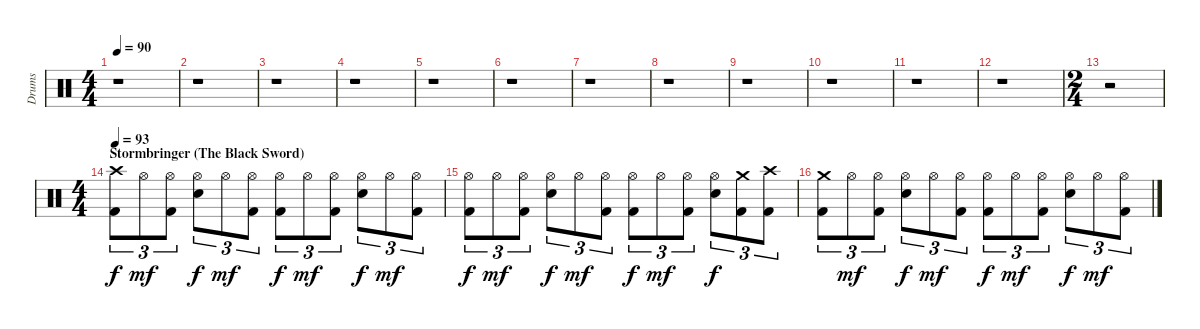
\track ("Drums" "Drums") {instrument percussion}
\staff {score}
\articulation defaults
\ts (4 4)
\tempo 90
\clef neutral
\ks c
r.1{dy f} |
r.1 |
r.1 |
r.1 |
r.1 |
r.1 |
r.1 |
r.1 |
r.1 |
r.1 |
r.1 |
r.1 |
\ts (2 4)
r.2 |
\ts (4 4)
\section ("" "Stormbringer (The Black Sword)")
\tempo 93
("Crash high (hit)" "Kick (hit) 2").8{tu (3 2)} "Hi-Hat (open)".8{tu (3 2) dy mf} ("Hi-Hat (open)" "Kick (hit) 2").8{tu (3 2)} ("Hi-Hat (open)" "Snare (hit) 2").8{tu (3 2) dy f} "Hi-Hat (open)".8{tu (3 2) dy mf} ("Hi-Hat (open)" "Kick (hit) 2").8{tu (3 2)} ("Hi-Hat (open)" "Kick (hit) 2").8{tu (3 2) dy f} "Hi-Hat (open)".8{tu (3 2) dy mf} ("Hi-Hat (open)" "Kick (hit) 2").8{tu (3 2)} ("Hi-Hat (open)" "Snare (hit) 2").8{tu (3 2) dy f} "Hi-Hat (open)".8{tu (3 2) dy mf} ("Hi-Hat (open)" "Kick (hit) 2").8{tu (3 2)} |
("Hi-Hat (open)" "Kick (hit) 2").8{tu (3 2) dy f} "Hi-Hat (open)".8{tu (3 2) dy mf} ("Hi-Hat (open)" "Kick (hit) 2").8{tu (3 2)} ("Hi-Hat (open)" "Snare (hit) 2").8{tu (3 2) dy f} "Hi-Hat (open)".8{tu (3 2) dy mf} ("Hi-Hat (open)" "Kick (hit) 2").8{tu (3 2)} ("Hi-Hat (open)" "Kick (hit) 2").8{tu (3 2) dy f} "Hi-Hat (open)".8{tu (3 2) dy mf} ("Hi-Hat (open)" "Kick (hit) 2").8{tu (3 2)} ("Hi-Hat (open)" "Snare (hit) 2").8{tu (3 2) dy f} ("Crash medium (hit)" "Kick (hit) 2").8{tu (3 2)} ("Crash high (hit)" "Kick (hit) 2").8{tu (3 2)} |
("Crash medium (hit)" "Kick (hit) 2").8{tu (3 2)} "Hi-Hat (open)".8{tu (3 2) dy mf} ("Hi-Hat (open)" "Kick (hit) 2").8{tu (3 2)} ("Hi-Hat (open)" "Snare (hit) 2").8{tu (3 2) dy f} "Hi-Hat (open)".8{tu (3 2) dy mf} ("Hi-Hat (open)" "Kick (hit) 2").8{tu (3 2)} ("Hi-Hat (open)" "Kick (hit) 2").8{tu (3 2) dy f} "Hi-Hat (open)".8{tu (3 2) dy mf} ("Hi-Hat (open)" "Kick (hit) 2").8{tu (3 2)} ("Hi-Hat (open)" "Snare (hit) 2").8{tu (3 2) dy f} "Hi-Hat (open)".8{tu (3 2) dy mf} ("Hi-Hat (open)" "Kick (hit) 2").8{tu (3 2)}
